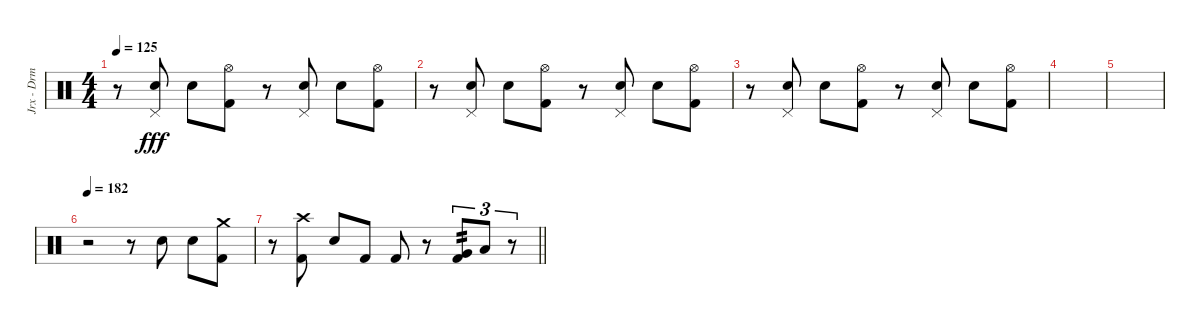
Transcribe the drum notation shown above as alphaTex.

\track ("Jrx - Drm" "Jrx - Drm") {instrument percussion}
\staff {score}
\articulation defaults
\ts (4 4)
\tempo 125
\clef neutral
\ks c
r.8{dy fff} ("Pedal Hi-Hat (hit)" "Snare (hit) 2").8 "Snare (hit) 2".8 ("Hi-Hat (open)" "Kick (hit) 2").8 r.8 ("Pedal Hi-Hat (hit)" "Snare (hit) 2").8 "Snare (hit) 2".8 ("Hi-Hat (open)" "Kick (hit) 2").8 |
r.8 ("Pedal Hi-Hat (hit)" "Snare (hit) 2").8 "Snare (hit) 2".8 ("Hi-Hat (open)" "Kick (hit) 2").8 r.8 ("Pedal Hi-Hat (hit)" "Snare (hit) 2").8 "Snare (hit) 2".8 ("Hi-Hat (open)" "Kick (hit) 2").8 |
r.8 ("Pedal Hi-Hat (hit)" "Snare (hit) 2").8 "Snare (hit) 2".8 ("Hi-Hat (open)" "Kick (hit) 2").8 r.8 ("Pedal Hi-Hat (hit)" "Snare (hit) 2").8 "Snare (hit) 2".8 ("Hi-Hat (open)" "Kick (hit) 2").8 |
|
|
\tempo 182
r.2 r.8 "Snare (hit) 2".8 "Snare (hit) 2".8 ("Kick (hit) 2" "Crash medium (hit)").8 |
\barLineRight lightlight
r.8 ("Kick (hit) 2" "Crash high (hit)").8 "Snare (hit) 2".8 "Kick (hit) 2".8 "Kick (hit) 2".8 r.8 ("Very Low Tom (hit)" "Kick (hit) 2").8{tu (3 2) tp 2} "Low Floor Tom (hit)".8{tu (3 2)} r.8{tu (3 2)}
